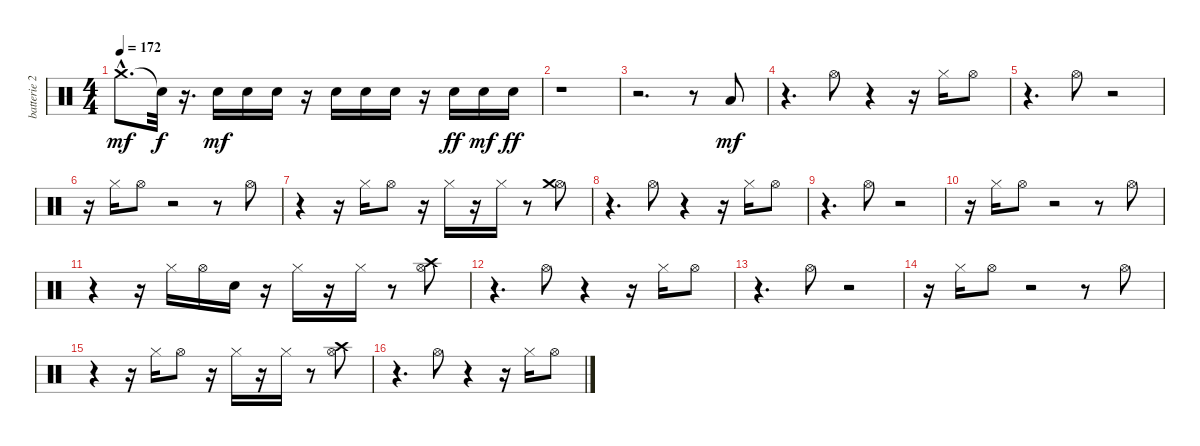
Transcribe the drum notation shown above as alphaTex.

\track ("batterie 2" "batterie 2") {instrument percussion}
\staff {score}
\articulation defaults
\ts (4 4)
\tempo 172
\clef neutral
\ks c "Crash medium (hit)"{hac}.8{d dy mf} "Snare (hit)"{t}.32{dy f}
r.16{d} "Electric Snare (hit)".16{dy mf} "Electric Snare (hit)".16 "Electric Snare (hit)".16 r.16 "Electric Snare (hit)".16 "Electric Snare (hit)".16 "Electric Snare (hit)".16 r.16 "Electric Snare (hit)".16{dy ff} "Electric Snare (hit)".16{dy mf} "Electric Snare (hit)".16{dy ff} |
r.1 |
r.2{d} r.8 "Low Floor Tom (hit)".8{dy mf} |
r.4{d} "Hi-Hat (open)".8 r.4 r.16 "Hi-Hat (closed)".16 "Hi-Hat (open)".8 |
r.4{d} "Hi-Hat (open)".8 r.2 |
r.16 "Hi-Hat (closed)".16 "Hi-Hat (open)".8 r.2 r.8 "Hi-Hat (open)".8 |
r.4 r.16 "Hi-Hat (closed)".16 "Hi-Hat (open)".8 r.16 "Hi-Hat (closed)".16 r.16 "Hi-Hat (closed)".16 r.8 ("Hi-Hat (open)" "Crash medium (hit)").8 |
r.4{d} "Hi-Hat (open)".8 r.4 r.16 "Hi-Hat (closed)".16 "Hi-Hat (open)".8 |
r.4{d} "Hi-Hat (open)".8 r.2 |
r.16 "Hi-Hat (closed)".16 "Hi-Hat (open)".8 r.2 r.8 "Hi-Hat (open)".8 |
r.4 r.16 "Hi-Hat (closed)".16 "Hi-Hat (open)".16 "Electric Snare (hit)".16 r.16 "Hi-Hat (closed)".16 r.16 "Hi-Hat (closed)".16 r.8 ("Hi-Hat (open)" "Crash high (hit)").8 |
r.4{d} "Hi-Hat (open)".8 r.4 r.16 "Hi-Hat (closed)".16 "Hi-Hat (open)".8 |
r.4{d} "Hi-Hat (open)".8 r.2 |
r.16 "Hi-Hat (closed)".16 "Hi-Hat (open)".8 r.2 r.8 "Hi-Hat (open)".8 |
r.4 r.16 "Hi-Hat (closed)".16 "Hi-Hat (open)".8 r.16 "Hi-Hat (closed)".16 r.16 "Hi-Hat (closed)".16 r.8 ("Hi-Hat (open)" "Crash high (hit)").8 |
r.4{d} "Hi-Hat (open)".8 r.4 r.16 "Hi-Hat (closed)".16 "Hi-Hat (open)".8
